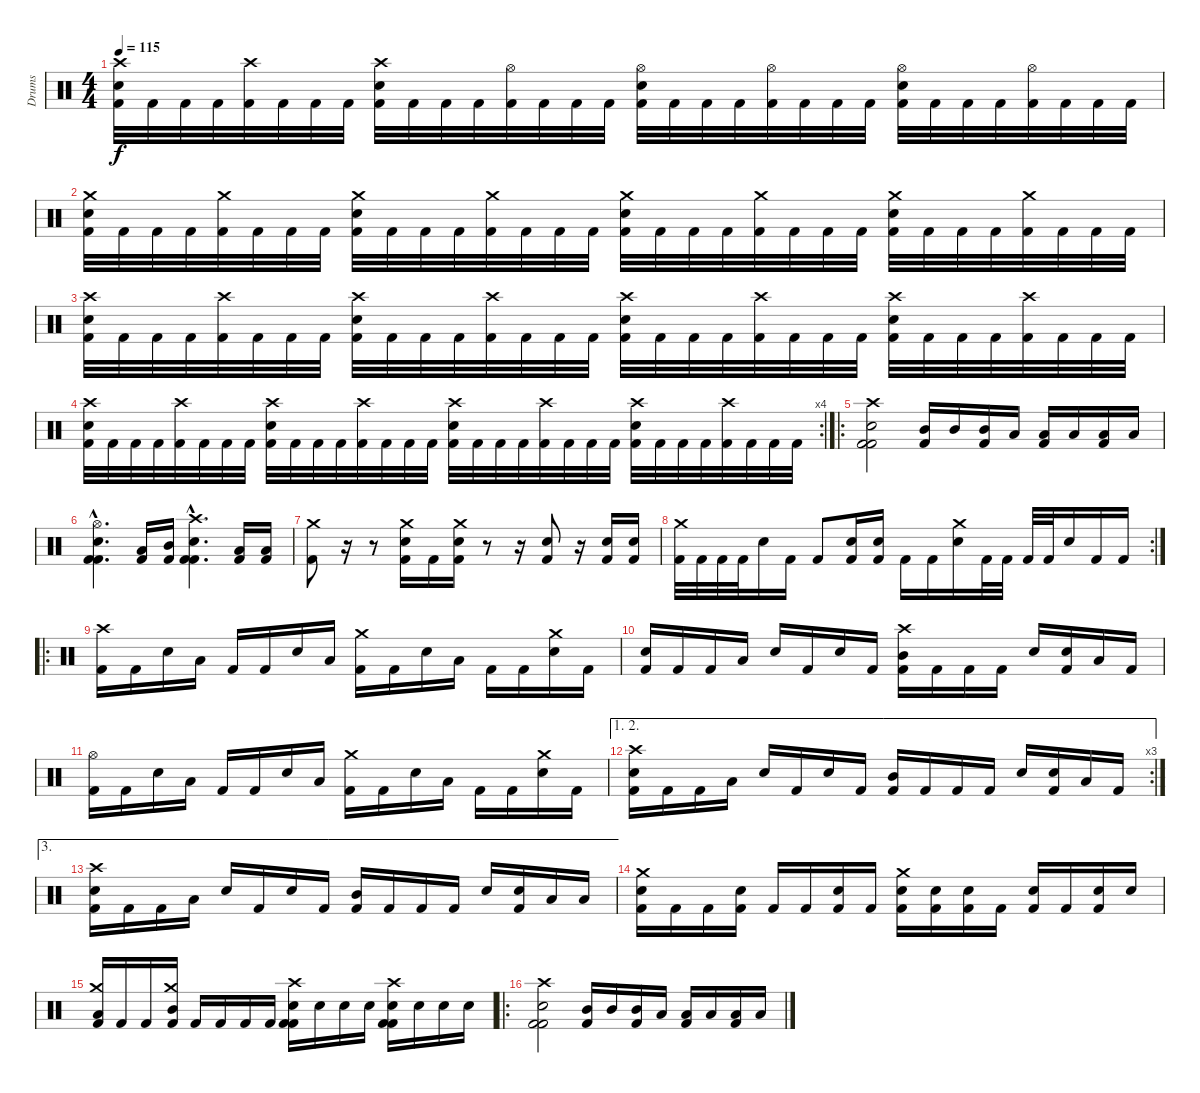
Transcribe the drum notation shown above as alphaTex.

\track ("Drums" "Drums") {instrument percussion}
\staff {score}
\articulation defaults
\ts (4 4)
\tempo 115
\clef neutral
\ks c
("Crash high (hit)" "Electric Snare (hit)" "Kick (hit) 2").32{dy f} "Kick (hit) 2".32 "Kick (hit) 2".32 "Kick (hit) 2".32 ("Crash high (hit)" "Kick (hit) 2").32 "Kick (hit) 2".32 "Kick (hit) 2".32 "Kick (hit) 2".32 ("Crash high (hit)" "Electric Snare (hit)" "Kick (hit) 2").32 "Kick (hit) 2".32 "Kick (hit) 2".32 "Kick (hit) 2".32 ("Hi-Hat (open)" "Kick (hit) 2").32 "Kick (hit) 2".32 "Kick (hit) 2".32 "Kick (hit) 2".32 ("Hi-Hat (open)" "Electric Snare (hit)" "Kick (hit) 2").32 "Kick (hit) 2".32 "Kick (hit) 2".32 "Kick (hit) 2".32 ("Hi-Hat (open)" "Kick (hit) 2").32 "Kick (hit) 2".32 "Kick (hit) 2".32 "Kick (hit) 2".32 ("Hi-Hat (open)" "Electric Snare (hit)" "Kick (hit) 2").32 "Kick (hit) 2".32 "Kick (hit) 2".32 "Kick (hit) 2".32 ("Hi-Hat (open)" "Kick (hit) 2").32 "Kick (hit) 2".32 "Kick (hit) 2".32 "Kick (hit) 2".32 |
("Crash medium (hit)" "Electric Snare (hit)" "Kick (hit) 2").32 "Kick (hit) 2".32 "Kick (hit) 2".32 "Kick (hit) 2".32 ("Crash medium (hit)" "Kick (hit) 2").32 "Kick (hit) 2".32 "Kick (hit) 2".32 "Kick (hit) 2".32 ("Crash medium (hit)" "Electric Snare (hit)" "Kick (hit) 2").32 "Kick (hit) 2".32 "Kick (hit) 2".32 "Kick (hit) 2".32 ("Crash medium (hit)" "Kick (hit) 2").32 "Kick (hit) 2".32 "Kick (hit) 2".32 "Kick (hit) 2".32 ("Crash medium (hit)" "Electric Snare (hit)" "Kick (hit) 2").32 "Kick (hit) 2".32 "Kick (hit) 2".32 "Kick (hit) 2".32 ("Crash medium (hit)" "Kick (hit) 2").32 "Kick (hit) 2".32 "Kick (hit) 2".32 "Kick (hit) 2".32 ("Crash medium (hit)" "Electric Snare (hit)" "Kick (hit) 2").32 "Kick (hit) 2".32 "Kick (hit) 2".32 "Kick (hit) 2".32 ("Crash medium (hit)" "Kick (hit) 2").32 "Kick (hit) 2".32 "Kick (hit) 2".32 "Kick (hit) 2".32 |
("Crash high (hit)" "Electric Snare (hit)" "Kick (hit) 2").32 "Kick (hit) 2".32 "Kick (hit) 2".32 "Kick (hit) 2".32 ("Crash high (hit)" "Kick (hit) 2").32 "Kick (hit) 2".32 "Kick (hit) 2".32 "Kick (hit) 2".32 ("Crash high (hit)" "Electric Snare (hit)" "Kick (hit) 2").32 "Kick (hit) 2".32 "Kick (hit) 2".32 "Kick (hit) 2".32 ("Crash high (hit)" "Kick (hit) 2").32 "Kick (hit) 2".32 "Kick (hit) 2".32 "Kick (hit) 2".32 ("Crash high (hit)" "Electric Snare (hit)" "Kick (hit) 2").32 "Kick (hit) 2".32 "Kick (hit) 2".32 "Kick (hit) 2".32 ("Crash high (hit)" "Kick (hit) 2").32 "Kick (hit) 2".32 "Kick (hit) 2".32 "Kick (hit) 2".32 ("Crash high (hit)" "Electric Snare (hit)" "Kick (hit) 2").32 "Kick (hit) 2".32 "Kick (hit) 2".32 "Kick (hit) 2".32 ("Crash high (hit)" "Kick (hit) 2").32 "Kick (hit) 2".32 "Kick (hit) 2".32 "Kick (hit) 2".32 |
\rc 4
("Crash high (hit)" "Electric Snare (hit)" "Kick (hit) 2").32 "Kick (hit) 2".32 "Kick (hit) 2".32 "Kick (hit) 2".32 ("Crash high (hit)" "Kick (hit) 2").32 "Kick (hit) 2".32 "Kick (hit) 2".32 "Kick (hit) 2".32 ("Crash high (hit)" "Electric Snare (hit)" "Kick (hit) 2").32 "Kick (hit) 2".32 "Kick (hit) 2".32 "Kick (hit) 2".32 ("Crash high (hit)" "Kick (hit) 2").32 "Kick (hit) 2".32 "Kick (hit) 2".32 "Kick (hit) 2".32 ("Crash high (hit)" "Electric Snare (hit)" "Kick (hit) 2").32 "Kick (hit) 2".32 "Kick (hit) 2".32 "Kick (hit) 2".32 ("Crash high (hit)" "Kick (hit) 2").32 "Kick (hit) 2".32 "Kick (hit) 2".32 "Kick (hit) 2".32 ("Crash high (hit)" "Electric Snare (hit)" "Kick (hit) 2").32 "Kick (hit) 2".32 "Kick (hit) 2".32 "Kick (hit) 2".32 ("Crash high (hit)" "Kick (hit) 2").32 "Kick (hit) 2".32 "Kick (hit) 2".32 "Kick (hit) 2".32 |
\ro
("Crash high (hit)" "Electric Snare (hit)" "Kick (hit) 2" "Kick (hit) 2").2 ("Mid Tom (hit)" "Kick (hit) 2").16 "Mid Tom (hit)".16 ("Mid Tom (hit)" "Kick (hit) 2").16 "Low Tom (hit)".16 ("Low Tom (hit)" "Kick (hit) 2").16 "Low Tom (hit)".16 ("Low Floor Tom (hit)" "Kick (hit) 2").16 "Low Floor Tom (hit)".16 |
("Hi-Hat (open)"{hac} "Electric Snare (hit)"{hac} "Kick (hit) 2"{hac} "Kick (hit) 2"{hac}).4{d} ("Low Tom (hit)" "Kick (hit) 2").16 ("Mid Tom (hit)" "Kick (hit) 2").16 ("Crash high (hit)"{hac} "Electric Snare (hit)"{hac} "Kick (hit) 2"{hac} "Kick (hit) 2"{hac}).4{d} ("Low Floor Tom (hit)" "Kick (hit) 2").16 ("Low Tom (hit)" "Kick (hit) 2").16 |
("Crash medium (hit)" "Kick (hit) 2").8 r.16 r.8 ("Crash medium (hit)" "Electric Snare (hit)" "Kick (hit) 2").16 "Kick (hit) 2".16 ("Crash medium (hit)" "Electric Snare (hit)" "Kick (hit) 2").16 r.8 r.16 ("Electric Snare (hit)" "Kick (hit) 2").8 r.16 ("Electric Snare (hit)" "Kick (hit) 2").16 ("Electric Snare (hit)" "Kick (hit) 2").16 |
\rc 2
("Crash medium (hit)" "Kick (hit) 2").32 "Kick (hit) 2".32 "Kick (hit) 2".32 "Kick (hit) 2".32 "Electric Snare (hit)".16 "Kick (hit) 2".16 "Kick (hit) 2".8 ("Electric Snare (hit)" "Kick (hit) 2").16 ("Electric Snare (hit)" "Kick (hit) 2").16 "Kick (hit) 2".16 "Kick (hit) 2".16 ("Crash medium (hit)" "Electric Snare (hit)").16 "Kick (hit) 2".32 "Kick (hit) 2".32 "Kick (hit) 2".32 "Kick (hit) 2".32 "Electric Snare (hit)".16 "Kick (hit) 2".16 "Kick (hit) 2".16 |
\ro
("Crash high (hit)" "Kick (hit) 2").16 "Kick (hit) 2".16 "Electric Snare (hit)".16 "Low Tom (hit)".16 "Kick (hit) 2".16 "Kick (hit) 2".16 "Electric Snare (hit)".16 "Low Tom (hit)".16 ("Crash medium (hit)" "Kick (hit) 2").16 "Kick (hit) 2".16 "Electric Snare (hit)".16 "Low Tom (hit)".16 "Kick (hit) 2".16 "Kick (hit) 2".16 ("Crash medium (hit)" "Electric Snare (hit)").16 "Kick (hit) 2".16 |
("Electric Snare (hit)" "Kick (hit) 2").16 "Kick (hit) 2".16 "Kick (hit) 2".16 "Low Tom (hit)".16 "Electric Snare (hit)".16 "Kick (hit) 2".16 "Electric Snare (hit)".16 "Kick (hit) 2".16 ("Crash high (hit)" "Mid Tom (hit)" "Kick (hit) 2").16 "Kick (hit) 2".16 "Kick (hit) 2".16 "Kick (hit) 2".16 "Electric Snare (hit)".16 ("Electric Snare (hit)" "Kick (hit) 2").16 "Low Floor Tom (hit)".16 "Kick (hit) 2".16 |
("Hi-Hat (open)" "Kick (hit) 2").16 "Kick (hit) 2".16 "Electric Snare (hit)".16 "Low Tom (hit)".16 "Kick (hit) 2".16 "Kick (hit) 2".16 "Electric Snare (hit)".16 "Low Tom (hit)".16 ("Crash medium (hit)" "Kick (hit) 2").16 "Kick (hit) 2".16 "Electric Snare (hit)".16 "Low Tom (hit)".16 "Kick (hit) 2".16 "Kick (hit) 2".16 ("Crash medium (hit)" "Electric Snare (hit)").16 "Kick (hit) 2".16 |
\ae (1 2)
\rc 3
("Crash high (hit)" "Electric Snare (hit)" "Kick (hit) 2").16 "Kick (hit) 2".16 "Kick (hit) 2".16 "Low Tom (hit)".16 "Electric Snare (hit)".16 "Kick (hit) 2".16 "Electric Snare (hit)".16 "Kick (hit) 2".16 ("Mid Tom (hit)" "Kick (hit) 2").16 "Kick (hit) 2".16 "Kick (hit) 2".16 "Kick (hit) 2".16 "Electric Snare (hit)".16 ("Electric Snare (hit)" "Kick (hit) 2").16 "Low Floor Tom (hit)".16 "Kick (hit) 2".16 |
\ae 3
("Crash high (hit)" "Electric Snare (hit)" "Kick (hit) 2").16 "Kick (hit) 2".16 "Kick (hit) 2".16 "Low Tom (hit)".16 "Electric Snare (hit)".16 "Kick (hit) 2".16 "Electric Snare (hit)".16 "Kick (hit) 2".16 ("Mid Tom (hit)" "Kick (hit) 2").16 "Kick (hit) 2".16 "Kick (hit) 2".16 "Kick (hit) 2".16 "Electric Snare (hit)".16 ("Electric Snare (hit)" "Kick (hit) 2").16 "Low Floor Tom (hit)".16 "Low Tom (hit)".16 |
("Crash medium (hit)" "Electric Snare (hit)" "Kick (hit) 2").16 "Kick (hit) 2".16 "Kick (hit) 2".16 ("Electric Snare (hit)" "Kick (hit) 2").16 "Kick (hit) 2".16 "Kick (hit) 2".16 ("Electric Snare (hit)" "Kick (hit) 2").16 "Kick (hit) 2".16 ("Crash medium (hit)" "Electric Snare (hit)" "Kick (hit) 2").16 ("Electric Snare (hit)" "Kick (hit) 2").16 ("Electric Snare (hit)" "Kick (hit) 2").16 "Kick (hit) 2".16 ("Electric Snare (hit)" "Kick (hit) 2").16 "Kick (hit) 2".16 ("Electric Snare (hit)" "Kick (hit) 2").16 "Electric Snare (hit)".16 |
("Crash medium (hit)" "Low Tom (hit)" "Kick (hit) 2").16 "Kick (hit) 2".16 "Kick (hit) 2".16 ("Crash medium (hit)" "Mid Tom (hit)" "Kick (hit) 2").16 "Kick (hit) 2".16 "Kick (hit) 2".16 "Kick (hit) 2".16 "Kick (hit) 2".16 ("Crash high (hit)" "Electric Snare (hit)" "Kick (hit) 2" "Kick (hit) 2").16 "Electric Snare (hit)".16 "Electric Snare (hit)".16 "Electric Snare (hit)".16 ("Crash high (hit)" "Electric Snare (hit)" "Kick (hit) 2" "Kick (hit) 2").16 "Electric Snare (hit)".16 "Electric Snare (hit)".16 "Electric Snare (hit)".16 |
\ro
("Crash high (hit)" "Electric Snare (hit)" "Kick (hit) 2" "Kick (hit) 2").2 ("Mid Tom (hit)" "Kick (hit) 2").16 "Mid Tom (hit)".16 ("Mid Tom (hit)" "Kick (hit) 2").16 "Low Tom (hit)".16 ("Low Tom (hit)" "Kick (hit) 2").16 "Low Tom (hit)".16 ("Low Floor Tom (hit)" "Kick (hit) 2").16 "Low Floor Tom (hit)".16
